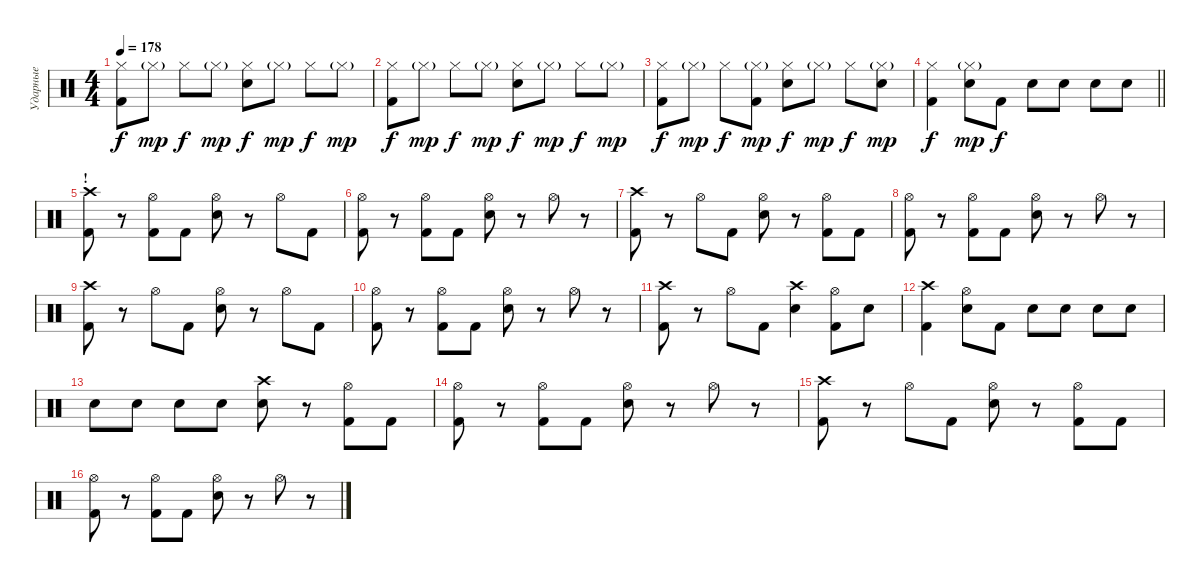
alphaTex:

\track ("Ударные" "Ударные") {instrument percussion}
\staff {score}
\articulation defaults
\ts (4 4)
\tempo 178
\clef neutral
\ks c
("Hi-Hat (closed)" "Kick (hit) 2").8{dy f} "Hi-Hat (closed)"{g}.8{dy mp} "Hi-Hat (closed)".8{dy f} "Hi-Hat (closed)"{g}.8{dy mp} ("Hi-Hat (closed)" "Snare (hit) 2").8{dy f} "Hi-Hat (closed)"{g}.8{dy mp} "Hi-Hat (closed)".8{dy f} "Hi-Hat (closed)"{g}.8{dy mp} |
("Hi-Hat (closed)" "Kick (hit) 2").8{dy f} "Hi-Hat (closed)"{g}.8{dy mp} "Hi-Hat (closed)".8{dy f} "Hi-Hat (closed)"{g}.8{dy mp} ("Hi-Hat (closed)" "Snare (hit) 2").8{dy f} "Hi-Hat (closed)"{g}.8{dy mp} "Hi-Hat (closed)".8{dy f} "Hi-Hat (closed)"{g}.8{dy mp} |
("Hi-Hat (closed)" "Kick (hit) 2").8{dy f} "Hi-Hat (closed)"{g}.8{dy mp} "Hi-Hat (closed)".8{dy f} ("Hi-Hat (closed)"{g} "Kick (hit) 2").8{dy mp} ("Hi-Hat (closed)" "Snare (hit) 2").8{dy f} "Hi-Hat (closed)"{g}.8{dy mp} "Hi-Hat (closed)".8{dy f} ("Hi-Hat (closed)"{g} "Snare (hit) 2").8{dy mp} |
\barLineRight lightlight
("Hi-Hat (closed)" "Kick (hit) 2").4{dy f} ("Hi-Hat (closed)"{g} "Snare (hit) 2").8{dy mp} "Kick (hit) 2".8{dy f} "Snare (hit) 2".8 "Snare (hit) 2".8 "Snare (hit) 2".8 "Snare (hit) 2".8 |
\section ("" "!")
("Crash high (hit)" "Kick (hit) 2").8 r.8 ("Hi-Hat (open)" "Kick (hit) 2").8 "Kick (hit) 2".8 ("Hi-Hat (open)" "Snare (hit) 2").8 r.8 "Hi-Hat (open)".8 "Kick (hit) 2".8 |
("Hi-Hat (open)" "Kick (hit) 2").8 r.8 ("Hi-Hat (open)" "Kick (hit) 2").8 "Kick (hit) 2".8 ("Hi-Hat (open)" "Snare (hit) 2").8 r.8 "Hi-Hat (open)".8 r.8 |
("Crash high (hit)" "Kick (hit) 2").8 r.8 "Hi-Hat (open)".8 "Kick (hit) 2".8 ("Hi-Hat (open)" "Snare (hit) 2").8 r.8 ("Hi-Hat (open)" "Kick (hit) 2").8 "Kick (hit) 2".8 |
("Hi-Hat (open)" "Kick (hit) 2").8 r.8 ("Hi-Hat (open)" "Kick (hit) 2").8 "Kick (hit) 2".8 ("Hi-Hat (open)" "Snare (hit) 2").8 r.8 "Hi-Hat (open)".8 r.8 |
("Crash high (hit)" "Kick (hit) 2").8 r.8 "Hi-Hat (open)".8 "Kick (hit) 2".8 ("Hi-Hat (open)" "Snare (hit) 2").8 r.8 "Hi-Hat (open)".8 "Kick (hit) 2".8 |
("Hi-Hat (open)" "Kick (hit) 2").8 r.8 ("Hi-Hat (open)" "Kick (hit) 2").8 "Kick (hit) 2".8 ("Hi-Hat (open)" "Snare (hit) 2").8 r.8 "Hi-Hat (open)".8 r.8 |
("Crash high (hit)" "Kick (hit) 2").8 r.8 "Hi-Hat (open)".8 "Kick (hit) 2".8 ("Crash high (hit)" "Snare (hit) 2").4 ("Hi-Hat (open)" "Kick (hit) 2").8 "Snare (hit) 2".8 |
("Crash high (hit)" "Kick (hit) 2").4 ("Hi-Hat (open)" "Snare (hit) 2").8 "Kick (hit) 2".8 "Snare (hit) 2".8 "Snare (hit) 2".8 "Snare (hit) 2".8 "Snare (hit) 2".8 |
"Snare (hit) 2".8 "Snare (hit) 2".8 "Snare (hit) 2".8 "Snare (hit) 2".8 ("Crash high (hit)" "Snare (hit) 2").8 r.8 ("Hi-Hat (open)" "Kick (hit) 2").8 "Kick (hit) 2".8 |
("Hi-Hat (open)" "Kick (hit) 2").8 r.8 ("Hi-Hat (open)" "Kick (hit) 2").8 "Kick (hit) 2".8 ("Hi-Hat (open)" "Snare (hit) 2").8 r.8 "Hi-Hat (open)".8 r.8 |
("Crash high (hit)" "Kick (hit) 2").8 r.8 "Hi-Hat (open)".8 "Kick (hit) 2".8 ("Hi-Hat (open)" "Snare (hit) 2").8 r.8 ("Hi-Hat (open)" "Kick (hit) 2").8 "Kick (hit) 2".8 |
("Hi-Hat (open)" "Kick (hit) 2").8 r.8 ("Hi-Hat (open)" "Kick (hit) 2").8 "Kick (hit) 2".8 ("Hi-Hat (open)" "Snare (hit) 2").8 r.8 "Hi-Hat (open)".8 r.8
